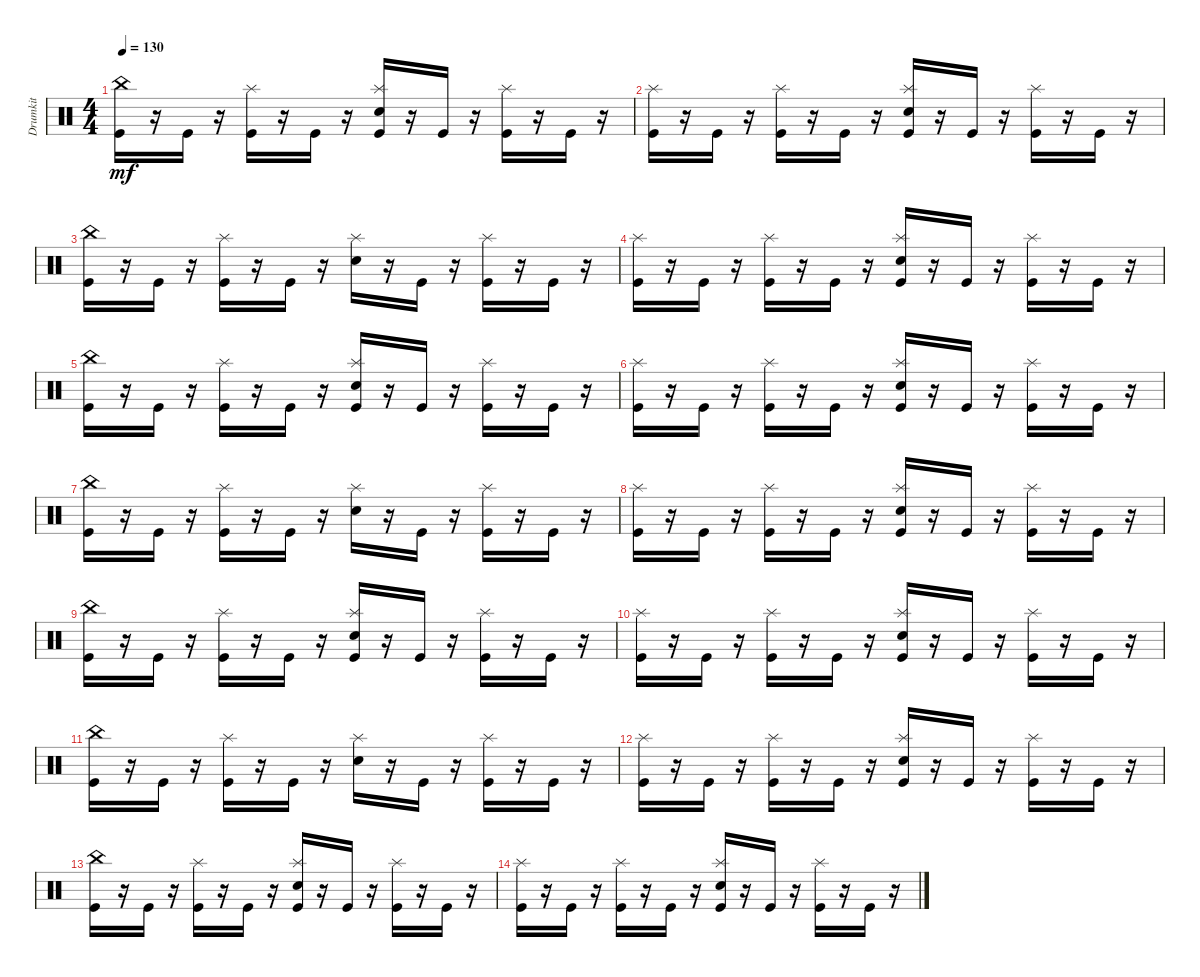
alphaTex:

\track ("Drumkit" "Drumkit") {instrument percussion}
\staff {score}
\articulation defaults
\ts (4 4)
\tempo 130
\clef neutral
\ks c
("China (hit)" "Kick (hit)").16{dy mf} r.16 "Kick (hit)".16 r.16 ("Splash (hit)" "Kick (hit)").16 r.16 "Kick (hit)".16 r.16 ("Splash (hit)" "Snare (hit) 2" "Kick (hit)").16 r.16 "Kick (hit)".16 r.16 ("Splash (hit)" "Kick (hit)").16 r.16 "Kick (hit)".16 r.16 |
("Splash (hit)" "Kick (hit)").16 r.16 "Kick (hit)".16 r.16 ("Splash (hit)" "Kick (hit)").16 r.16 "Kick (hit)".16 r.16 ("Splash (hit)" "Kick (hit)" "Snare (hit) 2").16 r.16 "Kick (hit)".16 r.16 ("Splash (hit)" "Kick (hit)").16 r.16 "Kick (hit)".16 r.16 |
("China (hit)" "Kick (hit)").16 r.16 "Kick (hit)".16 r.16 ("Splash (hit)" "Kick (hit)").16 r.16 "Kick (hit)".16 r.16 ("Splash (hit)" "Snare (hit) 2").16 r.16 "Kick (hit)".16 r.16 ("Splash (hit)" "Kick (hit)").16 r.16 "Kick (hit)".16 r.16 |
("Splash (hit)" "Kick (hit)").16 r.16 "Kick (hit)".16 r.16 ("Splash (hit)" "Kick (hit)").16 r.16 "Kick (hit)".16 r.16 ("Splash (hit)" "Kick (hit)" "Snare (hit) 2").16 r.16 "Kick (hit)".16 r.16 ("Splash (hit)" "Kick (hit)").16 r.16 "Kick (hit)".16 r.16 |
("China (hit)" "Kick (hit)").16 r.16 "Kick (hit)".16 r.16 ("Splash (hit)" "Kick (hit)").16 r.16 "Kick (hit)".16 r.16 ("Splash (hit)" "Snare (hit) 2" "Kick (hit)").16 r.16 "Kick (hit)".16 r.16 ("Splash (hit)" "Kick (hit)").16 r.16 "Kick (hit)".16 r.16 |
("Splash (hit)" "Kick (hit)").16 r.16 "Kick (hit)".16 r.16 ("Splash (hit)" "Kick (hit)").16 r.16 "Kick (hit)".16 r.16 ("Splash (hit)" "Kick (hit)" "Snare (hit) 2").16 r.16 "Kick (hit)".16 r.16 ("Splash (hit)" "Kick (hit)").16 r.16 "Kick (hit)".16 r.16 |
("China (hit)" "Kick (hit)").16 r.16 "Kick (hit)".16 r.16 ("Splash (hit)" "Kick (hit)").16 r.16 "Kick (hit)".16 r.16 ("Splash (hit)" "Snare (hit) 2").16 r.16 "Kick (hit)".16 r.16 ("Splash (hit)" "Kick (hit)").16 r.16 "Kick (hit)".16 r.16 |
("Splash (hit)" "Kick (hit)").16 r.16 "Kick (hit)".16 r.16 ("Splash (hit)" "Kick (hit)").16 r.16 "Kick (hit)".16 r.16 ("Splash (hit)" "Kick (hit)" "Snare (hit) 2").16 r.16 "Kick (hit)".16 r.16 ("Splash (hit)" "Kick (hit)").16 r.16 "Kick (hit)".16 r.16 |
("China (hit)" "Kick (hit)").16 r.16 "Kick (hit)".16 r.16 ("Splash (hit)" "Kick (hit)").16 r.16 "Kick (hit)".16 r.16 ("Splash (hit)" "Snare (hit) 2" "Kick (hit)").16 r.16 "Kick (hit)".16 r.16 ("Splash (hit)" "Kick (hit)").16 r.16 "Kick (hit)".16 r.16 |
("Splash (hit)" "Kick (hit)").16 r.16 "Kick (hit)".16 r.16 ("Splash (hit)" "Kick (hit)").16 r.16 "Kick (hit)".16 r.16 ("Splash (hit)" "Kick (hit)" "Snare (hit) 2").16 r.16 "Kick (hit)".16 r.16 ("Splash (hit)" "Kick (hit)").16 r.16 "Kick (hit)".16 r.16 |
("China (hit)" "Kick (hit)").16 r.16 "Kick (hit)".16 r.16 ("Splash (hit)" "Kick (hit)").16 r.16 "Kick (hit)".16 r.16 ("Splash (hit)" "Snare (hit) 2").16 r.16 "Kick (hit)".16 r.16 ("Splash (hit)" "Kick (hit)").16 r.16 "Kick (hit)".16 r.16 |
("Splash (hit)" "Kick (hit)").16 r.16 "Kick (hit)".16 r.16 ("Splash (hit)" "Kick (hit)").16 r.16 "Kick (hit)".16 r.16 ("Splash (hit)" "Kick (hit)" "Snare (hit) 2").16 r.16 "Kick (hit)".16 r.16 ("Splash (hit)" "Kick (hit)").16 r.16 "Kick (hit)".16 r.16 |
("China (hit)" "Kick (hit)").16 r.16 "Kick (hit)".16 r.16 ("Splash (hit)" "Kick (hit)").16 r.16 "Kick (hit)".16 r.16 ("Splash (hit)" "Snare (hit) 2" "Kick (hit)").16 r.16 "Kick (hit)".16 r.16 ("Splash (hit)" "Kick (hit)").16 r.16 "Kick (hit)".16 r.16 |
("Splash (hit)" "Kick (hit)").16 r.16 "Kick (hit)".16 r.16 ("Splash (hit)" "Kick (hit)").16 r.16 "Kick (hit)".16 r.16 ("Splash (hit)" "Kick (hit)" "Snare (hit) 2").16 r.16 "Kick (hit)".16 r.16 ("Splash (hit)" "Kick (hit)").16 r.16 "Kick (hit)".16 r.16
